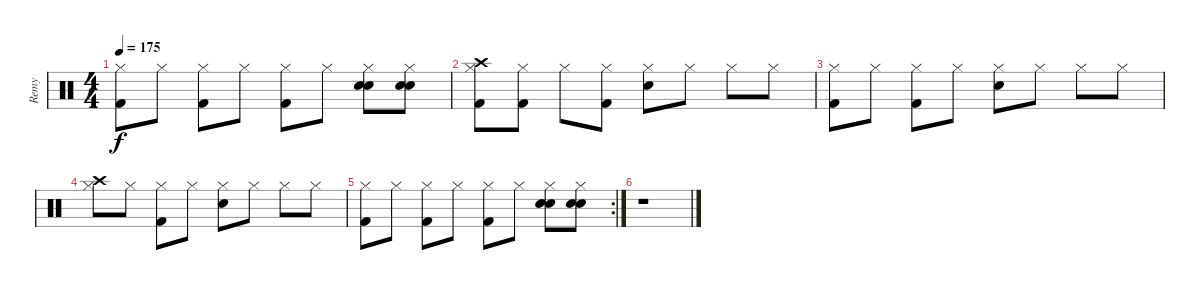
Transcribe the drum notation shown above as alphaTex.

\track ("Remy" "Remy") {instrument percussion}
\staff {score}
\articulation defaults
\ts (4 4)
\tempo 175
\clef neutral
\ks c
("Hi-Hat (closed)" "Kick (hit) 2").8{dy f} "Hi-Hat (closed)".8 ("Hi-Hat (closed)" "Kick (hit) 2").8 "Hi-Hat (closed)".8 ("Hi-Hat (closed)" "Kick (hit) 2").8 "Hi-Hat (closed)".8 ("Snare (hit) 2" "Hi-Hat (closed)" "Snare (hit) 2").8 ("Snare (hit) 2" "Hi-Hat (closed)" "Snare (hit) 2").8 |
("Hi-Hat (closed)" "Crash high (hit)" "Kick (hit) 2").8 ("Hi-Hat (closed)" "Kick (hit) 2").8 "Hi-Hat (closed)".8 ("Hi-Hat (closed)" "Kick (hit) 2").8 ("Snare (hit) 2" "Hi-Hat (closed)").8 "Hi-Hat (closed)".8 "Hi-Hat (closed)".8 "Hi-Hat (closed)".8 |
("Hi-Hat (closed)" "Kick (hit) 2").8 "Hi-Hat (closed)".8 ("Hi-Hat (closed)" "Kick (hit) 2").8 "Hi-Hat (closed)".8 ("Snare (hit) 2" "Hi-Hat (closed)").8 "Hi-Hat (closed)".8 "Hi-Hat (closed)".8 "Hi-Hat (closed)".8 |
("Hi-Hat (closed)" "Crash high (hit)").8 "Hi-Hat (closed)".8 ("Hi-Hat (closed)" "Kick (hit) 2").8 "Hi-Hat (closed)".8 ("Snare (hit) 2" "Hi-Hat (closed)").8 "Hi-Hat (closed)".8 "Hi-Hat (closed)".8 "Hi-Hat (closed)".8 |
\rc 2
("Hi-Hat (closed)" "Kick (hit) 2").8 "Hi-Hat (closed)".8 ("Hi-Hat (closed)" "Kick (hit) 2").8 "Hi-Hat (closed)".8 ("Hi-Hat (closed)" "Kick (hit) 2").8 "Hi-Hat (closed)".8 ("Snare (hit) 2" "Hi-Hat (closed)" "Snare (hit) 2").8 ("Snare (hit) 2" "Hi-Hat (closed)" "Snare (hit) 2").8 |
r.1
